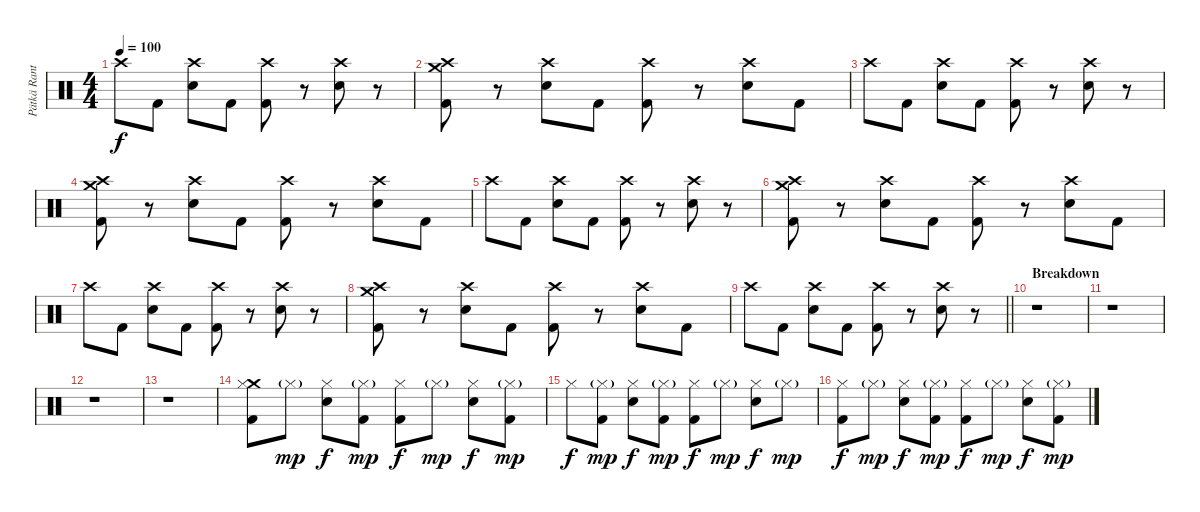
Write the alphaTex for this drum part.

\track ("Pätkä Rantala (Drums)" "Pätkä Rant") {instrument percussion}
\staff {score}
\articulation defaults
\ts (4 4)
\tempo 100
\clef neutral
\ks c "Crash high (hit)".8{dy f} "Kick (hit) 2".8
("Crash high (hit)" "Snare (hit) 2").8 "Kick (hit) 2".8 ("Crash high (hit)" "Kick (hit) 2").8 r.8 ("Crash high (hit)" "Snare (hit) 2").8 r.8 |
("Crash medium (hit)" "Crash high (hit)" "Kick (hit) 2").8 r.8 ("Crash high (hit)" "Snare (hit) 2").8 "Kick (hit) 2".8 ("Crash high (hit)" "Kick (hit) 2").8 r.8 ("Crash high (hit)" "Snare (hit) 2").8 "Kick (hit) 2".8 |
"Crash high (hit)".8 "Kick (hit) 2".8 ("Crash high (hit)" "Snare (hit) 2").8 "Kick (hit) 2".8 ("Crash high (hit)" "Kick (hit) 2").8 r.8 ("Crash high (hit)" "Snare (hit) 2").8 r.8 |
("Crash medium (hit)" "Crash high (hit)" "Kick (hit) 2").8 r.8 ("Crash high (hit)" "Snare (hit) 2").8 "Kick (hit) 2".8 ("Crash high (hit)" "Kick (hit) 2").8 r.8 ("Crash high (hit)" "Snare (hit) 2").8 "Kick (hit) 2".8 |
"Crash high (hit)".8 "Kick (hit) 2".8 ("Crash high (hit)" "Snare (hit) 2").8 "Kick (hit) 2".8 ("Crash high (hit)" "Kick (hit) 2").8 r.8 ("Crash high (hit)" "Snare (hit) 2").8 r.8 |
("Crash medium (hit)" "Crash high (hit)" "Kick (hit) 2").8 r.8 ("Crash high (hit)" "Snare (hit) 2").8 "Kick (hit) 2".8 ("Crash high (hit)" "Kick (hit) 2").8 r.8 ("Crash high (hit)" "Snare (hit) 2").8 "Kick (hit) 2".8 |
"Crash high (hit)".8 "Kick (hit) 2".8 ("Crash high (hit)" "Snare (hit) 2").8 "Kick (hit) 2".8 ("Crash high (hit)" "Kick (hit) 2").8 r.8 ("Crash high (hit)" "Snare (hit) 2").8 r.8 |
("Crash medium (hit)" "Crash high (hit)" "Kick (hit) 2").8 r.8 ("Crash high (hit)" "Snare (hit) 2").8 "Kick (hit) 2".8 ("Crash high (hit)" "Kick (hit) 2").8 r.8 ("Crash high (hit)" "Snare (hit) 2").8 "Kick (hit) 2".8 |
\barLineRight lightlight "Crash high (hit)".8 "Kick (hit) 2".8
("Crash high (hit)" "Snare (hit) 2").8 "Kick (hit) 2".8 ("Crash high (hit)" "Kick (hit) 2").8 r.8 ("Crash high (hit)" "Snare (hit) 2").8 r.8 |
\section ("" "Breakdown")
r.1 |
r.1 |
r.1 |
r.1 |
("Crash medium (hit)" "Hi-Hat (closed)" "Kick (hit) 2").8 "Hi-Hat (closed)"{g}.8{dy mp} ("Hi-Hat (closed)" "Snare (hit) 2").8{dy f} ("Hi-Hat (closed)"{g} "Kick (hit) 2").8{dy mp} ("Hi-Hat (closed)" "Kick (hit) 2").8{dy f} "Hi-Hat (closed)"{g}.8{dy mp} ("Hi-Hat (closed)" "Snare (hit) 2").8{dy f} ("Hi-Hat (closed)"{g} "Kick (hit) 2").8{dy mp} |
"Hi-Hat (closed)".8{dy f} ("Hi-Hat (closed)"{g} "Kick (hit) 2").8{dy mp} ("Hi-Hat (closed)" "Snare (hit) 2").8{dy f} ("Hi-Hat (closed)"{g} "Kick (hit) 2").8{dy mp} ("Hi-Hat (closed)" "Kick (hit) 2").8{dy f} "Hi-Hat (closed)"{g}.8{dy mp} ("Hi-Hat (closed)" "Snare (hit) 2").8{dy f} "Hi-Hat (closed)"{g}.8{dy mp} |
("Hi-Hat (closed)" "Kick (hit) 2").8{dy f} "Hi-Hat (closed)"{g}.8{dy mp} ("Hi-Hat (closed)" "Snare (hit) 2").8{dy f} ("Hi-Hat (closed)"{g} "Kick (hit) 2").8{dy mp} ("Hi-Hat (closed)" "Kick (hit) 2").8{dy f} "Hi-Hat (closed)"{g}.8{dy mp} ("Hi-Hat (closed)" "Snare (hit) 2").8{dy f} ("Hi-Hat (closed)"{g} "Kick (hit) 2").8{dy mp}
